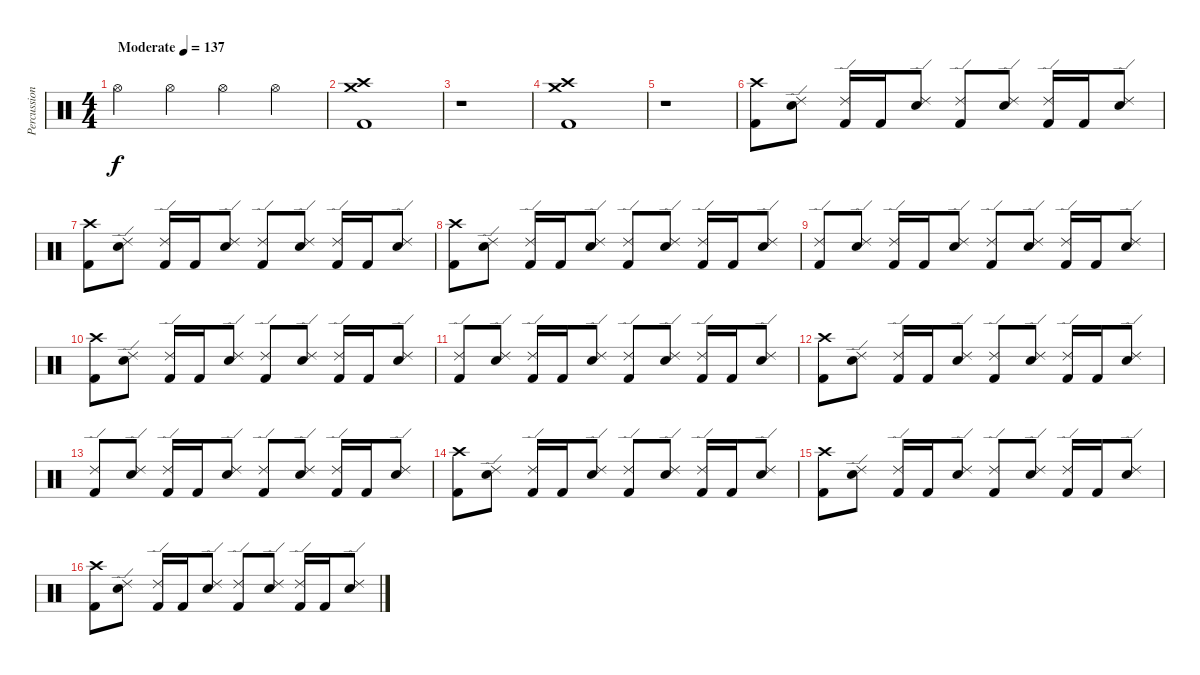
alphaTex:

\track ("Percussion" "Percussion") {instrument percussion}
\staff {score}
\articulation defaults
\ts (4 4)
\tempo (137 "Moderate")
\clef neutral
\ks c "Hi-Hat (open)".4{dy f} "Hi-Hat (open)".4 "Hi-Hat (open)".4 "Hi-Hat (open)".4
|
("Crash high (hit)" "Crash medium (hit)" "Kick (hit) 2").1 |
r.1 |
("Crash high (hit)" "Crash medium (hit)" "Kick (hit) 2").1 |
r.1 |
("Crash high (hit)" "Kick (hit) 2").8 ("Ride (edge) 2" "Electric Snare (hit)").8 ("Ride (edge) 2" "Kick (hit) 2").16 "Kick (hit) 2".16 ("Ride (edge) 2" "Electric Snare (hit)").8 ("Ride (edge) 2" "Kick (hit) 2").8 ("Ride (edge) 2" "Electric Snare (hit)").8 ("Ride (edge) 2" "Kick (hit) 2").16 "Kick (hit) 2".16 ("Ride (edge) 2" "Electric Snare (hit)").8 |
("Crash high (hit)" "Kick (hit) 2").8 ("Ride (edge) 2" "Electric Snare (hit)").8 ("Ride (edge) 2" "Kick (hit) 2").16 "Kick (hit) 2".16 ("Ride (edge) 2" "Electric Snare (hit)").8 ("Ride (edge) 2" "Kick (hit) 2").8 ("Ride (edge) 2" "Electric Snare (hit)").8 ("Ride (edge) 2" "Kick (hit) 2").16 "Kick (hit) 2".16 ("Ride (edge) 2" "Electric Snare (hit)").8 |
("Crash high (hit)" "Kick (hit) 2").8 ("Ride (edge) 2" "Electric Snare (hit)").8 ("Ride (edge) 2" "Kick (hit) 2").16 "Kick (hit) 2".16 ("Ride (edge) 2" "Electric Snare (hit)").8 ("Ride (edge) 2" "Kick (hit) 2").8 ("Ride (edge) 2" "Electric Snare (hit)").8 ("Ride (edge) 2" "Kick (hit) 2").16 "Kick (hit) 2".16 ("Ride (edge) 2" "Electric Snare (hit)").8 |
("Ride (edge) 2" "Kick (hit) 2").8 ("Ride (edge) 2" "Electric Snare (hit)").8 ("Ride (edge) 2" "Kick (hit) 2").16 "Kick (hit) 2".16 ("Ride (edge) 2" "Electric Snare (hit)").8 ("Ride (edge) 2" "Kick (hit) 2").8 ("Ride (edge) 2" "Electric Snare (hit)").8 ("Ride (edge) 2" "Kick (hit) 2").16 "Kick (hit) 2".16 ("Ride (edge) 2" "Electric Snare (hit)").8 |
("Crash high (hit)" "Kick (hit) 2").8 ("Ride (edge) 2" "Electric Snare (hit)").8 ("Ride (edge) 2" "Kick (hit) 2").16 "Kick (hit) 2".16 ("Ride (edge) 2" "Electric Snare (hit)").8 ("Ride (edge) 2" "Kick (hit) 2").8 ("Ride (edge) 2" "Electric Snare (hit)").8 ("Ride (edge) 2" "Kick (hit) 2").16 "Kick (hit) 2".16 ("Ride (edge) 2" "Electric Snare (hit)").8 |
("Ride (edge) 2" "Kick (hit) 2").8 ("Ride (edge) 2" "Electric Snare (hit)").8 ("Ride (edge) 2" "Kick (hit) 2").16 "Kick (hit) 2".16 ("Ride (edge) 2" "Electric Snare (hit)").8 ("Ride (edge) 2" "Kick (hit) 2").8 ("Ride (edge) 2" "Electric Snare (hit)").8 ("Ride (edge) 2" "Kick (hit) 2").16 "Kick (hit) 2".16 ("Ride (edge) 2" "Electric Snare (hit)").8 |
("Crash high (hit)" "Kick (hit) 2").8 ("Ride (edge) 2" "Electric Snare (hit)").8 ("Ride (edge) 2" "Kick (hit) 2").16 "Kick (hit) 2".16 ("Ride (edge) 2" "Electric Snare (hit)").8 ("Ride (edge) 2" "Kick (hit) 2").8 ("Ride (edge) 2" "Electric Snare (hit)").8 ("Ride (edge) 2" "Kick (hit) 2").16 "Kick (hit) 2".16 ("Ride (edge) 2" "Electric Snare (hit)").8 |
("Ride (edge) 2" "Kick (hit) 2").8 ("Ride (edge) 2" "Electric Snare (hit)").8 ("Ride (edge) 2" "Kick (hit) 2").16 "Kick (hit) 2".16 ("Ride (edge) 2" "Electric Snare (hit)").8 ("Ride (edge) 2" "Kick (hit) 2").8 ("Ride (edge) 2" "Electric Snare (hit)").8 ("Ride (edge) 2" "Kick (hit) 2").16 "Kick (hit) 2".16 ("Ride (edge) 2" "Electric Snare (hit)").8 |
("Crash high (hit)" "Kick (hit) 2").8 ("Ride (edge) 2" "Electric Snare (hit)").8 ("Ride (edge) 2" "Kick (hit) 2").16 "Kick (hit) 2".16 ("Ride (edge) 2" "Electric Snare (hit)").8 ("Ride (edge) 2" "Kick (hit) 2").8 ("Ride (edge) 2" "Electric Snare (hit)").8 ("Ride (edge) 2" "Kick (hit) 2").16 "Kick (hit) 2".16 ("Ride (edge) 2" "Electric Snare (hit)").8 |
("Crash high (hit)" "Kick (hit) 2").8 ("Ride (edge) 2" "Electric Snare (hit)").8 ("Ride (edge) 2" "Kick (hit) 2").16 "Kick (hit) 2".16 ("Ride (edge) 2" "Electric Snare (hit)").8 ("Ride (edge) 2" "Kick (hit) 2").8 ("Ride (edge) 2" "Electric Snare (hit)").8 ("Ride (edge) 2" "Kick (hit) 2").16 "Kick (hit) 2".16 ("Ride (edge) 2" "Electric Snare (hit)").8 |
("Crash high (hit)" "Kick (hit) 2").8 ("Ride (edge) 2" "Electric Snare (hit)").8 ("Ride (edge) 2" "Kick (hit) 2").16 "Kick (hit) 2".16 ("Ride (edge) 2" "Electric Snare (hit)").8 ("Ride (edge) 2" "Kick (hit) 2").8 ("Ride (edge) 2" "Electric Snare (hit)").8 ("Ride (edge) 2" "Kick (hit) 2").16 "Kick (hit) 2".16 ("Ride (edge) 2" "Electric Snare (hit)").8
